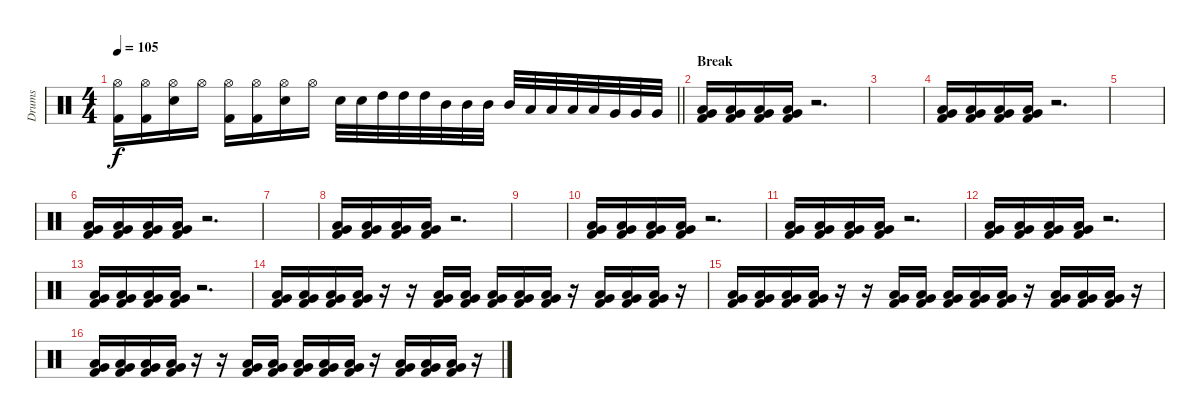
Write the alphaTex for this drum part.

\track ("Drums" "Drums") {instrument percussion}
\staff {score}
\articulation defaults
\ts (4 4)
\tempo 105
\clef neutral
\barLineRight lightlight
\ks c
("Hi-Hat (open)" "Kick (hit) 2").16{dy f} ("Hi-Hat (open)" "Kick (hit) 2").16 ("Hi-Hat (open)" "Electric Snare (hit)").16 "Hi-Hat (open)".16 ("Hi-Hat (open)" "Kick (hit) 2").16 ("Hi-Hat (open)" "Kick (hit) 2").16 ("Hi-Hat (open)" "Electric Snare (hit)").16 "Hi-Hat (open)".16 "Electric Snare (hit)".32 "Electric Snare (hit)".32 "High Tom (hit)".32 "High Tom (hit)".32 "High Tom (hit)".32 "Mid Tom (hit)".32 "Mid Tom (hit)".32 "Mid Tom (hit)".32 "Mid Tom (hit)".32 "Low Tom (hit)".32 "Low Tom (hit)".32 "Low Tom (hit)".32 "Low Tom (hit)".32 "Very Low Tom (hit)".32 "Very Low Tom (hit)".32 "Very Low Tom (hit)".32 |
\section ("" "Break")
("Low Tom (hit)" "Very Low Tom (hit)" "Kick (hit) 2").16 ("Low Tom (hit)" "Very Low Tom (hit)" "Kick (hit) 2").16 ("Low Tom (hit)" "Very Low Tom (hit)" "Kick (hit) 2").16 ("Low Tom (hit)" "Very Low Tom (hit)" "Kick (hit) 2").16 r.2{d} |
|
("Low Tom (hit)" "Very Low Tom (hit)" "Kick (hit) 2").16 ("Low Tom (hit)" "Very Low Tom (hit)" "Kick (hit) 2").16 ("Low Tom (hit)" "Very Low Tom (hit)" "Kick (hit) 2").16 ("Low Tom (hit)" "Very Low Tom (hit)" "Kick (hit) 2").16 r.2{d} |
|
("Low Tom (hit)" "Very Low Tom (hit)" "Kick (hit) 2").16 ("Low Tom (hit)" "Very Low Tom (hit)" "Kick (hit) 2").16 ("Low Tom (hit)" "Very Low Tom (hit)" "Kick (hit) 2").16 ("Low Tom (hit)" "Very Low Tom (hit)" "Kick (hit) 2").16 r.2{d} |
|
("Low Tom (hit)" "Very Low Tom (hit)" "Kick (hit) 2").16 ("Low Tom (hit)" "Very Low Tom (hit)" "Kick (hit) 2").16 ("Low Tom (hit)" "Very Low Tom (hit)" "Kick (hit) 2").16 ("Low Tom (hit)" "Very Low Tom (hit)" "Kick (hit) 2").16 r.2{d} |
|
("Low Tom (hit)" "Very Low Tom (hit)" "Kick (hit) 2").16 ("Low Tom (hit)" "Very Low Tom (hit)" "Kick (hit) 2").16 ("Low Tom (hit)" "Very Low Tom (hit)" "Kick (hit) 2").16 ("Low Tom (hit)" "Very Low Tom (hit)" "Kick (hit) 2").16 r.2{d} |
("Low Tom (hit)" "Very Low Tom (hit)" "Kick (hit) 2").16 ("Low Tom (hit)" "Very Low Tom (hit)" "Kick (hit) 2").16 ("Low Tom (hit)" "Very Low Tom (hit)" "Kick (hit) 2").16 ("Low Tom (hit)" "Very Low Tom (hit)" "Kick (hit) 2").16 r.2{d} |
("Low Tom (hit)" "Very Low Tom (hit)" "Kick (hit) 2").16 ("Low Tom (hit)" "Very Low Tom (hit)" "Kick (hit) 2").16 ("Low Tom (hit)" "Very Low Tom (hit)" "Kick (hit) 2").16 ("Low Tom (hit)" "Very Low Tom (hit)" "Kick (hit) 2").16 r.2{d} |
("Low Tom (hit)" "Very Low Tom (hit)" "Kick (hit) 2").16 ("Low Tom (hit)" "Very Low Tom (hit)" "Kick (hit) 2").16 ("Low Tom (hit)" "Very Low Tom (hit)" "Kick (hit) 2").16 ("Low Tom (hit)" "Very Low Tom (hit)" "Kick (hit) 2").16 r.2{d} |
("Low Tom (hit)" "Very Low Tom (hit)" "Kick (hit) 2").16 ("Low Tom (hit)" "Very Low Tom (hit)" "Kick (hit) 2").16 ("Low Tom (hit)" "Very Low Tom (hit)" "Kick (hit) 2").16 ("Low Tom (hit)" "Very Low Tom (hit)" "Kick (hit) 2").16 r.16 r.16 ("Low Tom (hit)" "Very Low Tom (hit)" "Kick (hit) 2").16 ("Low Tom (hit)" "Very Low Tom (hit)" "Kick (hit) 2").16 ("Low Tom (hit)" "Very Low Tom (hit)" "Kick (hit) 2").16 ("Low Tom (hit)" "Very Low Tom (hit)" "Kick (hit) 2").16 ("Low Tom (hit)" "Very Low Tom (hit)" "Kick (hit) 2").16 r.16 ("Low Tom (hit)" "Very Low Tom (hit)" "Kick (hit) 2").16 ("Low Tom (hit)" "Very Low Tom (hit)" "Kick (hit) 2").16 ("Low Tom (hit)" "Very Low Tom (hit)" "Kick (hit) 2").16 r.16 |
("Low Tom (hit)" "Very Low Tom (hit)" "Kick (hit) 2").16 ("Low Tom (hit)" "Very Low Tom (hit)" "Kick (hit) 2").16 ("Low Tom (hit)" "Very Low Tom (hit)" "Kick (hit) 2").16 ("Low Tom (hit)" "Very Low Tom (hit)" "Kick (hit) 2").16 r.16 r.16 ("Low Tom (hit)" "Very Low Tom (hit)" "Kick (hit) 2").16 ("Low Tom (hit)" "Very Low Tom (hit)" "Kick (hit) 2").16 ("Low Tom (hit)" "Very Low Tom (hit)" "Kick (hit) 2").16 ("Low Tom (hit)" "Very Low Tom (hit)" "Kick (hit) 2").16 ("Low Tom (hit)" "Very Low Tom (hit)" "Kick (hit) 2").16 r.16 ("Low Tom (hit)" "Very Low Tom (hit)" "Kick (hit) 2").16 ("Low Tom (hit)" "Very Low Tom (hit)" "Kick (hit) 2").16 ("Low Tom (hit)" "Very Low Tom (hit)" "Kick (hit) 2").16 r.16 |
("Low Tom (hit)" "Very Low Tom (hit)" "Kick (hit) 2").16 ("Low Tom (hit)" "Very Low Tom (hit)" "Kick (hit) 2").16 ("Low Tom (hit)" "Very Low Tom (hit)" "Kick (hit) 2").16 ("Low Tom (hit)" "Very Low Tom (hit)" "Kick (hit) 2").16 r.16 r.16 ("Low Tom (hit)" "Very Low Tom (hit)" "Kick (hit) 2").16 ("Low Tom (hit)" "Very Low Tom (hit)" "Kick (hit) 2").16 ("Low Tom (hit)" "Very Low Tom (hit)" "Kick (hit) 2").16 ("Low Tom (hit)" "Very Low Tom (hit)" "Kick (hit) 2").16 ("Low Tom (hit)" "Very Low Tom (hit)" "Kick (hit) 2").16 r.16 ("Low Tom (hit)" "Very Low Tom (hit)" "Kick (hit) 2").16 ("Low Tom (hit)" "Very Low Tom (hit)" "Kick (hit) 2").16 ("Low Tom (hit)" "Very Low Tom (hit)" "Kick (hit) 2").16 r.16
